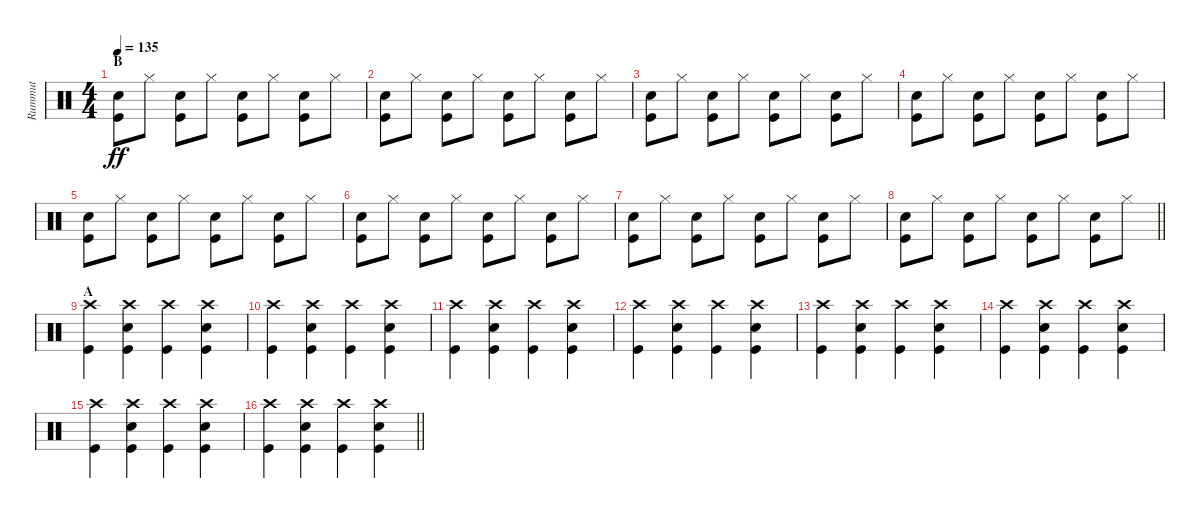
\track ("Rummut" "Rummut") {instrument percussion}
\staff {score}
\articulation defaults
\ts (4 4)
\section ("" "B")
\tempo 135
\clef neutral
\ks c
("Electric Snare (hit)" "Kick (hit)").8{dy ff} "Hi-Hat (closed)".8 ("Electric Snare (hit)" "Kick (hit)").8 "Hi-Hat (closed)".8 ("Electric Snare (hit)" "Kick (hit)").8 "Hi-Hat (closed)".8 ("Electric Snare (hit)" "Kick (hit)").8 "Hi-Hat (closed)".8 |
("Electric Snare (hit)" "Kick (hit)").8 "Hi-Hat (closed)".8 ("Electric Snare (hit)" "Kick (hit)").8 "Hi-Hat (closed)".8 ("Electric Snare (hit)" "Kick (hit)").8 "Hi-Hat (closed)".8 ("Electric Snare (hit)" "Kick (hit)").8 "Hi-Hat (closed)".8 |
("Electric Snare (hit)" "Kick (hit)").8 "Hi-Hat (closed)".8 ("Electric Snare (hit)" "Kick (hit)").8 "Hi-Hat (closed)".8 ("Electric Snare (hit)" "Kick (hit)").8 "Hi-Hat (closed)".8 ("Electric Snare (hit)" "Kick (hit)").8 "Hi-Hat (closed)".8 |
("Electric Snare (hit)" "Kick (hit)").8 "Hi-Hat (closed)".8 ("Electric Snare (hit)" "Kick (hit)").8 "Hi-Hat (closed)".8 ("Electric Snare (hit)" "Kick (hit)").8 "Hi-Hat (closed)".8 ("Electric Snare (hit)" "Kick (hit)").8 "Hi-Hat (closed)".8 |
("Electric Snare (hit)" "Kick (hit)").8 "Hi-Hat (closed)".8 ("Electric Snare (hit)" "Kick (hit)").8 "Hi-Hat (closed)".8 ("Electric Snare (hit)" "Kick (hit)").8 "Hi-Hat (closed)".8 ("Electric Snare (hit)" "Kick (hit)").8 "Hi-Hat (closed)".8 |
("Electric Snare (hit)" "Kick (hit)").8 "Hi-Hat (closed)".8 ("Electric Snare (hit)" "Kick (hit)").8 "Hi-Hat (closed)".8 ("Electric Snare (hit)" "Kick (hit)").8 "Hi-Hat (closed)".8 ("Electric Snare (hit)" "Kick (hit)").8 "Hi-Hat (closed)".8 |
("Electric Snare (hit)" "Kick (hit)").8 "Hi-Hat (closed)".8 ("Electric Snare (hit)" "Kick (hit)").8 "Hi-Hat (closed)".8 ("Electric Snare (hit)" "Kick (hit)").8 "Hi-Hat (closed)".8 ("Electric Snare (hit)" "Kick (hit)").8 "Hi-Hat (closed)".8 |
\barLineRight lightlight
("Electric Snare (hit)" "Kick (hit)").8 "Hi-Hat (closed)".8 ("Electric Snare (hit)" "Kick (hit)").8 "Hi-Hat (closed)".8 ("Electric Snare (hit)" "Kick (hit)").8 "Hi-Hat (closed)".8 ("Electric Snare (hit)" "Kick (hit)").8 "Hi-Hat (closed)".8 |
\section ("" "A")
("Crash high (hit)" "Kick (hit)").4 ("Crash high (hit)" "Electric Snare (hit)" "Kick (hit)").4 ("Crash high (hit)" "Kick (hit)").4 ("Crash high (hit)" "Electric Snare (hit)" "Kick (hit)").4 |
("Crash high (hit)" "Kick (hit)").4 ("Crash high (hit)" "Electric Snare (hit)" "Kick (hit)").4 ("Crash high (hit)" "Kick (hit)").4 ("Crash high (hit)" "Electric Snare (hit)" "Kick (hit)").4 |
("Crash high (hit)" "Kick (hit)").4 ("Crash high (hit)" "Electric Snare (hit)" "Kick (hit)").4 ("Crash high (hit)" "Kick (hit)").4 ("Crash high (hit)" "Electric Snare (hit)" "Kick (hit)").4 |
("Crash high (hit)" "Kick (hit)").4 ("Crash high (hit)" "Electric Snare (hit)" "Kick (hit)").4 ("Crash high (hit)" "Kick (hit)").4 ("Crash high (hit)" "Electric Snare (hit)" "Kick (hit)").4 |
("Crash high (hit)" "Kick (hit)").4 ("Crash high (hit)" "Electric Snare (hit)" "Kick (hit)").4 ("Crash high (hit)" "Kick (hit)").4 ("Crash high (hit)" "Electric Snare (hit)" "Kick (hit)").4 |
("Crash high (hit)" "Kick (hit)").4 ("Crash high (hit)" "Electric Snare (hit)" "Kick (hit)").4 ("Crash high (hit)" "Kick (hit)").4 ("Crash high (hit)" "Electric Snare (hit)" "Kick (hit)").4 |
("Crash high (hit)" "Kick (hit)").4 ("Crash high (hit)" "Electric Snare (hit)" "Kick (hit)").4 ("Crash high (hit)" "Kick (hit)").4 ("Crash high (hit)" "Electric Snare (hit)" "Kick (hit)").4 |
\barLineRight lightlight
("Crash high (hit)" "Kick (hit)").4 ("Crash high (hit)" "Electric Snare (hit)" "Kick (hit)").4 ("Crash high (hit)" "Kick (hit)").4 ("Crash high (hit)" "Electric Snare (hit)" "Kick (hit)").4
